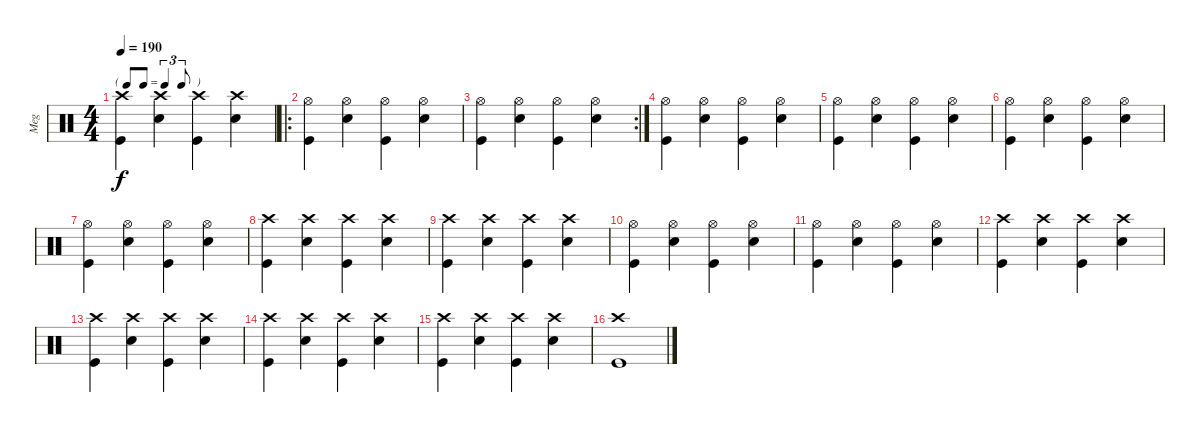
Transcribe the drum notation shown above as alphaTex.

\track ("Meg" "Meg") {instrument percussion}
\staff {score}
\articulation defaults
\ts (4 4)
\tf triplet8th
\tempo 190
\clef neutral
\ks c
("Crash high (hit)" "Kick (hit)").4{dy f} ("Crash high (hit)" "Electric Snare (hit)").4 ("Crash high (hit)" "Kick (hit)").4 ("Crash high (hit)" "Electric Snare (hit)").4 |
\ro
("Hi-Hat (open)" "Kick (hit)").4 ("Hi-Hat (open)" "Electric Snare (hit)").4 ("Hi-Hat (open)" "Kick (hit)").4 ("Hi-Hat (open)" "Electric Snare (hit)").4 |
\rc 2
("Hi-Hat (open)" "Kick (hit)").4 ("Hi-Hat (open)" "Electric Snare (hit)").4 ("Hi-Hat (open)" "Kick (hit)").4 ("Hi-Hat (open)" "Electric Snare (hit)").4 |
("Hi-Hat (open)" "Kick (hit)").4 ("Hi-Hat (open)" "Electric Snare (hit)").4 ("Hi-Hat (open)" "Kick (hit)").4 ("Hi-Hat (open)" "Electric Snare (hit)").4 |
("Hi-Hat (open)" "Kick (hit)").4 ("Hi-Hat (open)" "Electric Snare (hit)").4 ("Hi-Hat (open)" "Kick (hit)").4 ("Hi-Hat (open)" "Electric Snare (hit)").4 |
("Hi-Hat (open)" "Kick (hit)").4 ("Hi-Hat (open)" "Electric Snare (hit)").4 ("Hi-Hat (open)" "Kick (hit)").4 ("Hi-Hat (open)" "Electric Snare (hit)").4 |
("Hi-Hat (open)" "Kick (hit)").4 ("Hi-Hat (open)" "Electric Snare (hit)").4 ("Hi-Hat (open)" "Kick (hit)").4 ("Hi-Hat (open)" "Electric Snare (hit)").4 |
("Crash high (hit)" "Kick (hit)").4 ("Crash high (hit)" "Electric Snare (hit)").4 ("Crash high (hit)" "Kick (hit)").4 ("Crash high (hit)" "Electric Snare (hit)").4 |
("Crash high (hit)" "Kick (hit)").4 ("Crash high (hit)" "Electric Snare (hit)").4 ("Crash high (hit)" "Kick (hit)").4 ("Crash high (hit)" "Electric Snare (hit)").4 |
("Hi-Hat (open)" "Kick (hit)").4 ("Hi-Hat (open)" "Electric Snare (hit)").4 ("Hi-Hat (open)" "Kick (hit)").4 ("Hi-Hat (open)" "Electric Snare (hit)").4 |
("Hi-Hat (open)" "Kick (hit)").4 ("Hi-Hat (open)" "Electric Snare (hit)").4 ("Hi-Hat (open)" "Kick (hit)").4 ("Hi-Hat (open)" "Electric Snare (hit)").4 |
("Crash high (hit)" "Kick (hit)").4 ("Crash high (hit)" "Electric Snare (hit)").4 ("Crash high (hit)" "Kick (hit)").4 ("Crash high (hit)" "Electric Snare (hit)").4 |
("Crash high (hit)" "Kick (hit)").4 ("Crash high (hit)" "Electric Snare (hit)").4 ("Crash high (hit)" "Kick (hit)").4 ("Crash high (hit)" "Electric Snare (hit)").4 |
("Crash high (hit)" "Kick (hit)").4 ("Crash high (hit)" "Electric Snare (hit)").4 ("Crash high (hit)" "Kick (hit)").4 ("Crash high (hit)" "Electric Snare (hit)").4 |
("Crash high (hit)" "Kick (hit)").4 ("Crash high (hit)" "Electric Snare (hit)").4 ("Crash high (hit)" "Kick (hit)").4 ("Crash high (hit)" "Electric Snare (hit)").4 |
("Crash high (hit)" "Kick (hit)").1
